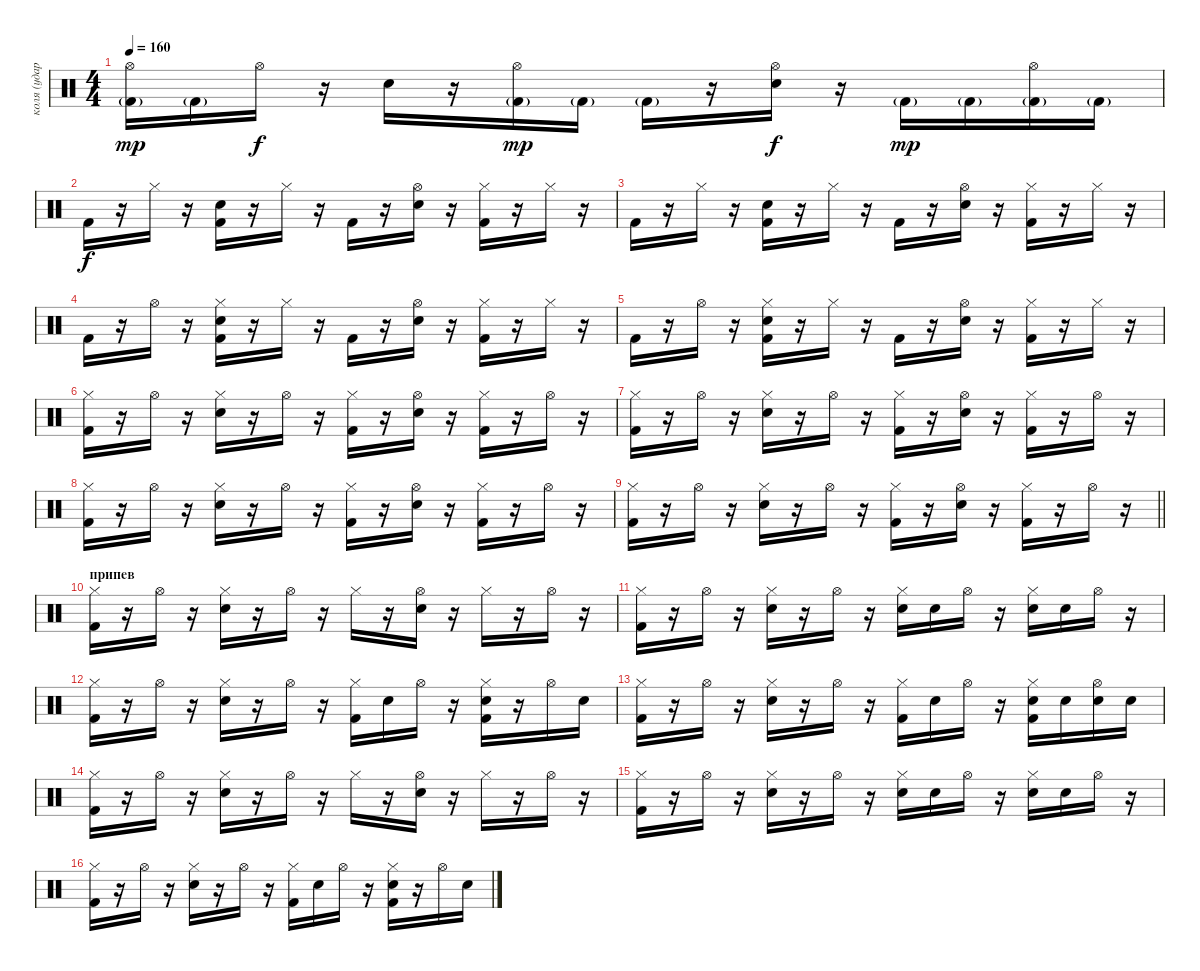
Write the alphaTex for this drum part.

\track ("коля (ударные)" "коля (удар") {instrument percussion}
\staff {score}
\articulation defaults
\ts (4 4)
\tempo 160
\clef neutral
\ks c
("Kick (hit) 2"{g} "Hi-Hat (open)").16{dy mp} "Kick (hit) 2"{g}.16 "Hi-Hat (open)".16{dy f} r.16 "Snare (hit) 2".16 r.16 ("Kick (hit) 2"{g} "Hi-Hat (open)").16{dy mp} "Kick (hit) 2"{g}.16 "Kick (hit) 2"{g}.16 r.16 ("Snare (hit) 2" "Hi-Hat (open)").16{dy f} r.16 "Kick (hit) 2"{g}.16{dy mp} "Kick (hit) 2"{g}.16 ("Kick (hit) 2"{g} "Hi-Hat (open)").16 "Kick (hit) 2"{g}.16 |
"Kick (hit) 2".16{dy f} r.16 "Hi-Hat (closed)".16 r.16 ("Snare (hit) 2" "Kick (hit) 2").16 r.16 "Hi-Hat (closed)".16 r.16 "Kick (hit) 2".16 r.16 ("Snare (hit) 2" "Hi-Hat (open)").16 r.16 ("Kick (hit) 2" "Hi-Hat (closed)").16 r.16 "Hi-Hat (closed)".16 r.16 |
"Kick (hit) 2".16 r.16 "Hi-Hat (closed)".16 r.16 ("Snare (hit) 2" "Kick (hit) 2").16 r.16 "Hi-Hat (closed)".16 r.16 "Kick (hit) 2".16 r.16 ("Snare (hit) 2" "Hi-Hat (open)").16 r.16 ("Kick (hit) 2" "Hi-Hat (closed)").16 r.16 "Hi-Hat (closed)".16 r.16 |
"Kick (hit) 2".16 r.16 "Hi-Hat (open)".16 r.16 ("Snare (hit) 2" "Kick (hit) 2" "Hi-Hat (closed)").16 r.16 "Hi-Hat (closed)".16 r.16 "Kick (hit) 2".16 r.16 ("Snare (hit) 2" "Hi-Hat (open)").16 r.16 ("Kick (hit) 2" "Hi-Hat (closed)").16 r.16 "Hi-Hat (closed)".16 r.16 |
"Kick (hit) 2".16 r.16 "Hi-Hat (open)".16 r.16 ("Snare (hit) 2" "Kick (hit) 2" "Hi-Hat (closed)").16 r.16 "Hi-Hat (closed)".16 r.16 "Kick (hit) 2".16 r.16 ("Snare (hit) 2" "Hi-Hat (open)").16 r.16 ("Kick (hit) 2" "Hi-Hat (closed)").16 r.16 "Hi-Hat (closed)".16 r.16 |
("Kick (hit) 2" "Hi-Hat (closed)").16 r.16 "Hi-Hat (open)".16 r.16 ("Snare (hit) 2" "Hi-Hat (closed)").16 r.16 "Hi-Hat (open)".16 r.16 ("Kick (hit) 2" "Hi-Hat (closed)").16 r.16 ("Snare (hit) 2" "Hi-Hat (open)").16 r.16 ("Kick (hit) 2" "Hi-Hat (closed)").16 r.16 "Hi-Hat (open)".16 r.16 |
("Kick (hit) 2" "Hi-Hat (closed)").16 r.16 "Hi-Hat (open)".16 r.16 ("Snare (hit) 2" "Hi-Hat (closed)").16 r.16 "Hi-Hat (open)".16 r.16 ("Kick (hit) 2" "Hi-Hat (closed)").16 r.16 ("Snare (hit) 2" "Hi-Hat (open)").16 r.16 ("Kick (hit) 2" "Hi-Hat (closed)").16 r.16 "Hi-Hat (open)".16 r.16 |
("Kick (hit) 2" "Hi-Hat (closed)").16 r.16 "Hi-Hat (open)".16 r.16 ("Snare (hit) 2" "Hi-Hat (closed)").16 r.16 "Hi-Hat (open)".16 r.16 ("Kick (hit) 2" "Hi-Hat (closed)").16 r.16 ("Snare (hit) 2" "Hi-Hat (open)").16 r.16 ("Kick (hit) 2" "Hi-Hat (closed)").16 r.16 "Hi-Hat (open)".16 r.16 |
\barLineRight lightlight
("Kick (hit) 2" "Hi-Hat (closed)").16 r.16 "Hi-Hat (open)".16 r.16 ("Snare (hit) 2" "Hi-Hat (closed)").16 r.16 "Hi-Hat (open)".16 r.16 ("Kick (hit) 2" "Hi-Hat (closed)").16 r.16 ("Snare (hit) 2" "Hi-Hat (open)").16 r.16 ("Kick (hit) 2" "Hi-Hat (closed)").16 r.16 "Hi-Hat (open)".16 r.16 |
\section ("" "припев")
("Kick (hit) 2" "Hi-Hat (closed)").16 r.16 "Hi-Hat (open)".16 r.16 ("Snare (hit) 2" "Hi-Hat (closed)").16 r.16 "Hi-Hat (open)".16 r.16 "Hi-Hat (closed)".16 r.16 ("Snare (hit) 2" "Hi-Hat (open)").16 r.16 "Hi-Hat (closed)".16 r.16 "Hi-Hat (open)".16 r.16 |
("Kick (hit) 2" "Hi-Hat (closed)").16 r.16 "Hi-Hat (open)".16 r.16 ("Snare (hit) 2" "Hi-Hat (closed)").16 r.16 "Hi-Hat (open)".16 r.16 ("Snare (hit) 2" "Hi-Hat (closed)").16 "Snare (hit) 2".16 "Hi-Hat (open)".16 r.16 ("Snare (hit) 2" "Hi-Hat (closed)").16 "Snare (hit) 2".16 "Hi-Hat (open)".16 r.16 |
("Kick (hit) 2" "Hi-Hat (closed)").16 r.16 "Hi-Hat (open)".16 r.16 ("Snare (hit) 2" "Hi-Hat (closed)").16 r.16 "Hi-Hat (open)".16 r.16 ("Kick (hit) 2" "Hi-Hat (closed)").16 "Snare (hit) 2".16 "Hi-Hat (open)".16 r.16 ("Snare (hit) 2" "Kick (hit) 2" "Hi-Hat (closed)").16 r.16 "Hi-Hat (open)".16 "Snare (hit) 2".16 |
("Kick (hit) 2" "Hi-Hat (closed)").16 r.16 "Hi-Hat (open)".16 r.16 ("Snare (hit) 2" "Hi-Hat (closed)").16 r.16 "Hi-Hat (open)".16 r.16 ("Kick (hit) 2" "Hi-Hat (closed)").16 "Snare (hit) 2".16 "Hi-Hat (open)".16 r.16 ("Snare (hit) 2" "Kick (hit) 2" "Hi-Hat (closed)").16 "Snare (hit) 2".16 ("Snare (hit) 2" "Hi-Hat (open)").16 "Snare (hit) 2".16 |
("Kick (hit) 2" "Hi-Hat (closed)").16 r.16 "Hi-Hat (open)".16 r.16 ("Snare (hit) 2" "Hi-Hat (closed)").16 r.16 "Hi-Hat (open)".16 r.16 "Hi-Hat (closed)".16 r.16 ("Snare (hit) 2" "Hi-Hat (open)").16 r.16 "Hi-Hat (closed)".16 r.16 "Hi-Hat (open)".16 r.16 |
("Kick (hit) 2" "Hi-Hat (closed)").16 r.16 "Hi-Hat (open)".16 r.16 ("Snare (hit) 2" "Hi-Hat (closed)").16 r.16 "Hi-Hat (open)".16 r.16 ("Snare (hit) 2" "Hi-Hat (closed)").16 "Snare (hit) 2".16 "Hi-Hat (open)".16 r.16 ("Snare (hit) 2" "Hi-Hat (closed)").16 "Snare (hit) 2".16 "Hi-Hat (open)".16 r.16 |
("Kick (hit) 2" "Hi-Hat (closed)").16 r.16 "Hi-Hat (open)".16 r.16 ("Snare (hit) 2" "Hi-Hat (closed)").16 r.16 "Hi-Hat (open)".16 r.16 ("Kick (hit) 2" "Hi-Hat (closed)").16 "Snare (hit) 2".16 "Hi-Hat (open)".16 r.16 ("Snare (hit) 2" "Kick (hit) 2" "Hi-Hat (closed)").16 r.16 "Hi-Hat (open)".16 "Snare (hit) 2".16
